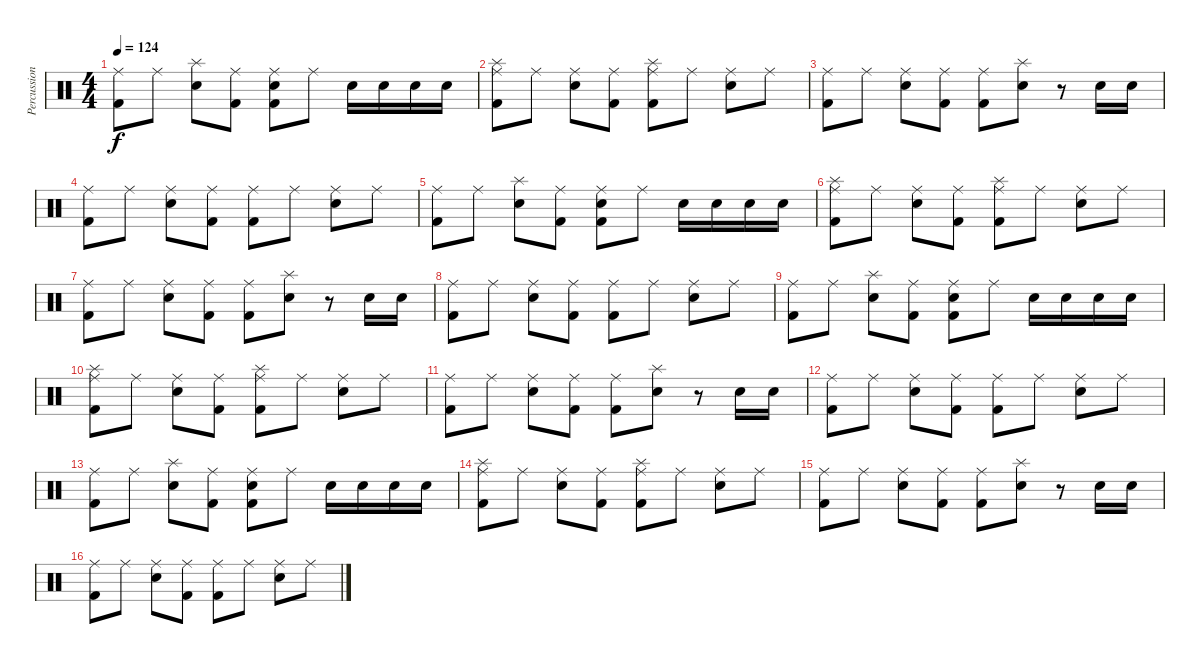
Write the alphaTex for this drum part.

\track ("Percussioni" "Percussion") {instrument percussion}
\staff {score}
\articulation defaults
\ts (4 4)
\tempo 124
\clef neutral
\ks c
("Ride (middle)" "Kick (hit) 2").8{dy f} "Ride (middle)".8 ("Splash (hit)" "Snare (hit) 2").8 ("Ride (middle)" "Kick (hit) 2").8 ("Ride (middle)" "Snare (hit) 2" "Kick (hit) 2").8 "Ride (middle)".8 "Snare (hit) 2".16 "Snare (hit) 2".16 "Snare (hit) 2".16 "Snare (hit) 2".16 |
("Ride (middle)" "Splash (hit)" "Kick (hit) 2").8 "Ride (middle)".8 ("Ride (middle)" "Snare (hit) 2").8 ("Ride (middle)" "Kick (hit) 2").8 ("Ride (middle)" "Splash (hit)" "Kick (hit) 2").8 "Ride (middle)".8 ("Ride (middle)" "Snare (hit) 2").8 "Ride (middle)".8 |
("Ride (middle)" "Kick (hit) 2").8 "Ride (middle)".8 ("Ride (middle)" "Snare (hit) 2").8 ("Ride (middle)" "Kick (hit) 2").8 ("Ride (middle)" "Kick (hit) 2").8 ("Splash (hit)" "Snare (hit) 2").8 r.8 "Snare (hit) 2".16 "Snare (hit) 2".16 |
("Ride (middle)" "Kick (hit) 2").8 "Ride (middle)".8 ("Ride (middle)" "Snare (hit) 2").8 ("Ride (middle)" "Kick (hit) 2").8 ("Ride (middle)" "Kick (hit) 2").8 "Ride (middle)".8 ("Ride (middle)" "Snare (hit) 2").8 "Ride (middle)".8 |
("Ride (middle)" "Kick (hit) 2").8 "Ride (middle)".8 ("Splash (hit)" "Snare (hit) 2").8 ("Ride (middle)" "Kick (hit) 2").8 ("Ride (middle)" "Snare (hit) 2" "Kick (hit) 2").8 "Ride (middle)".8 "Snare (hit) 2".16 "Snare (hit) 2".16 "Snare (hit) 2".16 "Snare (hit) 2".16 |
("Ride (middle)" "Splash (hit)" "Kick (hit) 2").8 "Ride (middle)".8 ("Ride (middle)" "Snare (hit) 2").8 ("Ride (middle)" "Kick (hit) 2").8 ("Ride (middle)" "Splash (hit)" "Kick (hit) 2").8 "Ride (middle)".8 ("Ride (middle)" "Snare (hit) 2").8 "Ride (middle)".8 |
("Ride (middle)" "Kick (hit) 2").8 "Ride (middle)".8 ("Ride (middle)" "Snare (hit) 2").8 ("Ride (middle)" "Kick (hit) 2").8 ("Ride (middle)" "Kick (hit) 2").8 ("Splash (hit)" "Snare (hit) 2").8 r.8 "Snare (hit) 2".16 "Snare (hit) 2".16 |
("Ride (middle)" "Kick (hit) 2").8 "Ride (middle)".8 ("Ride (middle)" "Snare (hit) 2").8 ("Ride (middle)" "Kick (hit) 2").8 ("Ride (middle)" "Kick (hit) 2").8 "Ride (middle)".8 ("Ride (middle)" "Snare (hit) 2").8 "Ride (middle)".8 |
("Ride (middle)" "Kick (hit) 2").8 "Ride (middle)".8 ("Splash (hit)" "Snare (hit) 2").8 ("Ride (middle)" "Kick (hit) 2").8 ("Ride (middle)" "Snare (hit) 2" "Kick (hit) 2").8 "Ride (middle)".8 "Snare (hit) 2".16 "Snare (hit) 2".16 "Snare (hit) 2".16 "Snare (hit) 2".16 |
("Ride (middle)" "Splash (hit)" "Kick (hit) 2").8 "Ride (middle)".8 ("Ride (middle)" "Snare (hit) 2").8 ("Ride (middle)" "Kick (hit) 2").8 ("Ride (middle)" "Splash (hit)" "Kick (hit) 2").8 "Ride (middle)".8 ("Ride (middle)" "Snare (hit) 2").8 "Ride (middle)".8 |
("Ride (middle)" "Kick (hit) 2").8 "Ride (middle)".8 ("Ride (middle)" "Snare (hit) 2").8 ("Ride (middle)" "Kick (hit) 2").8 ("Ride (middle)" "Kick (hit) 2").8 ("Splash (hit)" "Snare (hit) 2").8 r.8 "Snare (hit) 2".16 "Snare (hit) 2".16 |
("Ride (middle)" "Kick (hit) 2").8 "Ride (middle)".8 ("Ride (middle)" "Snare (hit) 2").8 ("Ride (middle)" "Kick (hit) 2").8 ("Ride (middle)" "Kick (hit) 2").8 "Ride (middle)".8 ("Ride (middle)" "Snare (hit) 2").8 "Ride (middle)".8 |
("Ride (middle)" "Kick (hit) 2").8 "Ride (middle)".8 ("Splash (hit)" "Snare (hit) 2").8 ("Ride (middle)" "Kick (hit) 2").8 ("Ride (middle)" "Snare (hit) 2" "Kick (hit) 2").8 "Ride (middle)".8 "Snare (hit) 2".16 "Snare (hit) 2".16 "Snare (hit) 2".16 "Snare (hit) 2".16 |
("Ride (middle)" "Splash (hit)" "Kick (hit) 2").8 "Ride (middle)".8 ("Ride (middle)" "Snare (hit) 2").8 ("Ride (middle)" "Kick (hit) 2").8 ("Ride (middle)" "Splash (hit)" "Kick (hit) 2").8 "Ride (middle)".8 ("Ride (middle)" "Snare (hit) 2").8 "Ride (middle)".8 |
("Ride (middle)" "Kick (hit) 2").8 "Ride (middle)".8 ("Ride (middle)" "Snare (hit) 2").8 ("Ride (middle)" "Kick (hit) 2").8 ("Ride (middle)" "Kick (hit) 2").8 ("Splash (hit)" "Snare (hit) 2").8 r.8 "Snare (hit) 2".16 "Snare (hit) 2".16 |
("Ride (middle)" "Kick (hit) 2").8 "Ride (middle)".8 ("Ride (middle)" "Snare (hit) 2").8 ("Ride (middle)" "Kick (hit) 2").8 ("Ride (middle)" "Kick (hit) 2").8 "Ride (middle)".8 ("Ride (middle)" "Snare (hit) 2").8 "Ride (middle)".8
